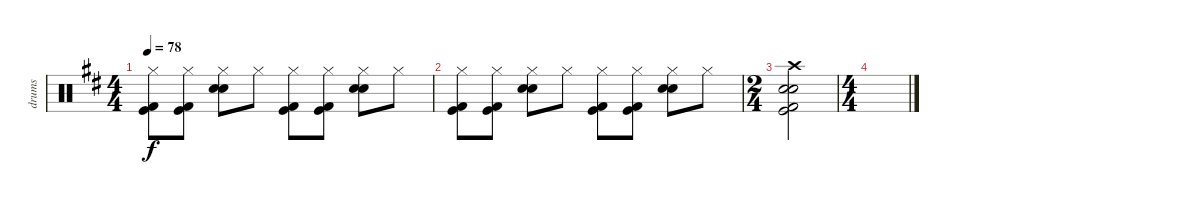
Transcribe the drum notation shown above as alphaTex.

\track ("drums" "drums") {instrument percussion}
\staff {score}
\articulation defaults
\ts (4 4)
\tempo 78
\clef neutral
\ks d
("Kick (hit)" "Kick (hit) 2" "Hi-Hat (closed)").8{dy f} ("Kick (hit)" "Kick (hit) 2" "Hi-Hat (closed)").8 ("Electric Snare (hit)" "Snare (hit) 2" "Hi-Hat (closed)").8 "Hi-Hat (closed)".8 ("Kick (hit)" "Kick (hit) 2" "Hi-Hat (closed)").8 ("Kick (hit)" "Kick (hit) 2" "Hi-Hat (closed)").8 ("Electric Snare (hit)" "Snare (hit) 2" "Hi-Hat (closed)").8 "Hi-Hat (closed)".8 |
("Kick (hit)" "Kick (hit) 2" "Hi-Hat (closed)").8 ("Kick (hit)" "Kick (hit) 2" "Hi-Hat (closed)").8 ("Electric Snare (hit)" "Snare (hit) 2" "Hi-Hat (closed)").8 "Hi-Hat (closed)".8 ("Kick (hit)" "Kick (hit) 2" "Hi-Hat (closed)").8 ("Kick (hit)" "Kick (hit) 2" "Hi-Hat (closed)").8 ("Electric Snare (hit)" "Snare (hit) 2" "Hi-Hat (closed)").8 "Hi-Hat (closed)".8 |
\ts (2 4)
("Kick (hit)" "Kick (hit) 2" "Electric Snare (hit)" "Snare (hit) 2" "Crash high (hit)").2 |
\ts (4 4)
